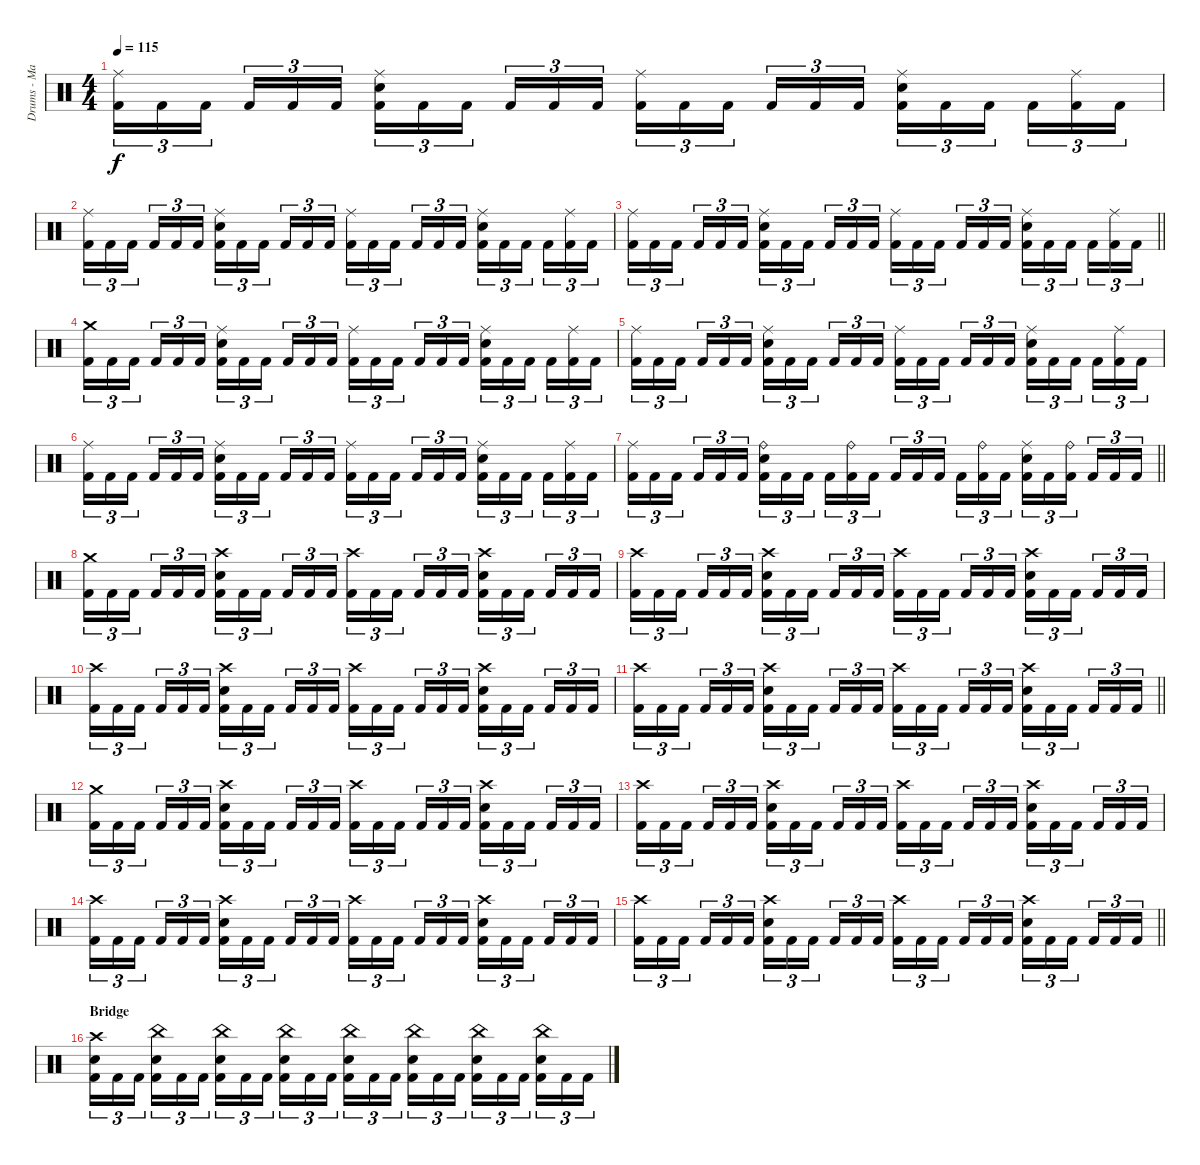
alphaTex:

\track ("Drums - Mario Duplantier" "Drums - Ma") {instrument percussion}
\staff {score}
\articulation defaults
\ts (4 4)
\tempo 115
\clef neutral
\ks c
("Ride (middle)" "Kick (hit) 2").16{tu (3 2) dy f} "Kick (hit) 2".16{tu (3 2)} "Kick (hit) 2".16{tu (3 2) beam splitsecondary} "Kick (hit) 2".16{tu (3 2)} "Kick (hit) 2".16{tu (3 2)} "Kick (hit) 2".16{tu (3 2)} ("Ride (middle)" "Electric Snare (hit)" "Kick (hit) 2").16{tu (3 2)} "Kick (hit) 2".16{tu (3 2)} "Kick (hit) 2".16{tu (3 2) beam splitsecondary} "Kick (hit) 2".16{tu (3 2)} "Kick (hit) 2".16{tu (3 2)} "Kick (hit) 2".16{tu (3 2)} ("Ride (middle)" "Kick (hit) 2").16{tu (3 2)} "Kick (hit) 2".16{tu (3 2)} "Kick (hit) 2".16{tu (3 2) beam splitsecondary} "Kick (hit) 2".16{tu (3 2)} "Kick (hit) 2".16{tu (3 2)} "Kick (hit) 2".16{tu (3 2)} ("Ride (middle)" "Electric Snare (hit)" "Kick (hit) 2").16{tu (3 2)} "Kick (hit) 2".16{tu (3 2)} "Kick (hit) 2".16{tu (3 2) beam splitsecondary} "Kick (hit) 2".16{tu (3 2)} ("Ride (middle)" "Kick (hit) 2").16{tu (3 2)} "Kick (hit) 2".16{tu (3 2)} |
("Ride (middle)" "Kick (hit) 2").16{tu (3 2)} "Kick (hit) 2".16{tu (3 2)} "Kick (hit) 2".16{tu (3 2) beam splitsecondary} "Kick (hit) 2".16{tu (3 2)} "Kick (hit) 2".16{tu (3 2)} "Kick (hit) 2".16{tu (3 2)} ("Ride (middle)" "Electric Snare (hit)" "Kick (hit) 2").16{tu (3 2)} "Kick (hit) 2".16{tu (3 2)} "Kick (hit) 2".16{tu (3 2) beam splitsecondary} "Kick (hit) 2".16{tu (3 2)} "Kick (hit) 2".16{tu (3 2)} "Kick (hit) 2".16{tu (3 2)} ("Ride (middle)" "Kick (hit) 2").16{tu (3 2)} "Kick (hit) 2".16{tu (3 2)} "Kick (hit) 2".16{tu (3 2) beam splitsecondary} "Kick (hit) 2".16{tu (3 2)} "Kick (hit) 2".16{tu (3 2)} "Kick (hit) 2".16{tu (3 2)} ("Ride (middle)" "Electric Snare (hit)" "Kick (hit) 2").16{tu (3 2)} "Kick (hit) 2".16{tu (3 2)} "Kick (hit) 2".16{tu (3 2) beam splitsecondary} "Kick (hit) 2".16{tu (3 2)} ("Ride (middle)" "Kick (hit) 2").16{tu (3 2)} "Kick (hit) 2".16{tu (3 2)} |
\barLineRight lightlight
("Ride (middle)" "Kick (hit) 2").16{tu (3 2)} "Kick (hit) 2".16{tu (3 2)} "Kick (hit) 2".16{tu (3 2) beam splitsecondary} "Kick (hit) 2".16{tu (3 2)} "Kick (hit) 2".16{tu (3 2)} "Kick (hit) 2".16{tu (3 2)} ("Ride (middle)" "Electric Snare (hit)" "Kick (hit) 2").16{tu (3 2)} "Kick (hit) 2".16{tu (3 2)} "Kick (hit) 2".16{tu (3 2) beam splitsecondary} "Kick (hit) 2".16{tu (3 2)} "Kick (hit) 2".16{tu (3 2)} "Kick (hit) 2".16{tu (3 2)} ("Ride (middle)" "Kick (hit) 2").16{tu (3 2)} "Kick (hit) 2".16{tu (3 2)} "Kick (hit) 2".16{tu (3 2) beam splitsecondary} "Kick (hit) 2".16{tu (3 2)} "Kick (hit) 2".16{tu (3 2)} "Kick (hit) 2".16{tu (3 2)} ("Ride (middle)" "Electric Snare (hit)" "Kick (hit) 2").16{tu (3 2)} "Kick (hit) 2".16{tu (3 2)} "Kick (hit) 2".16{tu (3 2) beam splitsecondary} "Kick (hit) 2".16{tu (3 2)} ("Ride (middle)" "Kick (hit) 2").16{tu (3 2)} "Kick (hit) 2".16{tu (3 2)} |
\section ("" "")
("Crash medium (hit)" "Kick (hit) 2").16{tu (3 2)} "Kick (hit) 2".16{tu (3 2)} "Kick (hit) 2".16{tu (3 2) beam splitsecondary} "Kick (hit) 2".16{tu (3 2)} "Kick (hit) 2".16{tu (3 2)} "Kick (hit) 2".16{tu (3 2)} ("Ride (middle)" "Electric Snare (hit)" "Kick (hit) 2").16{tu (3 2)} "Kick (hit) 2".16{tu (3 2)} "Kick (hit) 2".16{tu (3 2) beam splitsecondary} "Kick (hit) 2".16{tu (3 2)} "Kick (hit) 2".16{tu (3 2)} "Kick (hit) 2".16{tu (3 2)} ("Ride (middle)" "Kick (hit) 2").16{tu (3 2)} "Kick (hit) 2".16{tu (3 2)} "Kick (hit) 2".16{tu (3 2) beam splitsecondary} "Kick (hit) 2".16{tu (3 2)} "Kick (hit) 2".16{tu (3 2)} "Kick (hit) 2".16{tu (3 2)} ("Ride (middle)" "Electric Snare (hit)" "Kick (hit) 2").16{tu (3 2)} "Kick (hit) 2".16{tu (3 2)} "Kick (hit) 2".16{tu (3 2) beam splitsecondary} "Kick (hit) 2".16{tu (3 2)} ("Ride (middle)" "Kick (hit) 2").16{tu (3 2)} "Kick (hit) 2".16{tu (3 2)} |
("Ride (middle)" "Kick (hit) 2").16{tu (3 2)} "Kick (hit) 2".16{tu (3 2)} "Kick (hit) 2".16{tu (3 2) beam splitsecondary} "Kick (hit) 2".16{tu (3 2)} "Kick (hit) 2".16{tu (3 2)} "Kick (hit) 2".16{tu (3 2)} ("Ride (middle)" "Electric Snare (hit)" "Kick (hit) 2").16{tu (3 2)} "Kick (hit) 2".16{tu (3 2)} "Kick (hit) 2".16{tu (3 2) beam splitsecondary} "Kick (hit) 2".16{tu (3 2)} "Kick (hit) 2".16{tu (3 2)} "Kick (hit) 2".16{tu (3 2)} ("Ride (middle)" "Kick (hit) 2").16{tu (3 2)} "Kick (hit) 2".16{tu (3 2)} "Kick (hit) 2".16{tu (3 2) beam splitsecondary} "Kick (hit) 2".16{tu (3 2)} "Kick (hit) 2".16{tu (3 2)} "Kick (hit) 2".16{tu (3 2)} ("Ride (middle)" "Electric Snare (hit)" "Kick (hit) 2").16{tu (3 2)} "Kick (hit) 2".16{tu (3 2)} "Kick (hit) 2".16{tu (3 2) beam splitsecondary} "Kick (hit) 2".16{tu (3 2)} ("Ride (middle)" "Kick (hit) 2").16{tu (3 2)} "Kick (hit) 2".16{tu (3 2)} |
("Ride (middle)" "Kick (hit) 2").16{tu (3 2)} "Kick (hit) 2".16{tu (3 2)} "Kick (hit) 2".16{tu (3 2) beam splitsecondary} "Kick (hit) 2".16{tu (3 2)} "Kick (hit) 2".16{tu (3 2)} "Kick (hit) 2".16{tu (3 2)} ("Ride (middle)" "Electric Snare (hit)" "Kick (hit) 2").16{tu (3 2)} "Kick (hit) 2".16{tu (3 2)} "Kick (hit) 2".16{tu (3 2) beam splitsecondary} "Kick (hit) 2".16{tu (3 2)} "Kick (hit) 2".16{tu (3 2)} "Kick (hit) 2".16{tu (3 2)} ("Ride (middle)" "Kick (hit) 2").16{tu (3 2)} "Kick (hit) 2".16{tu (3 2)} "Kick (hit) 2".16{tu (3 2) beam splitsecondary} "Kick (hit) 2".16{tu (3 2)} "Kick (hit) 2".16{tu (3 2)} "Kick (hit) 2".16{tu (3 2)} ("Ride (middle)" "Electric Snare (hit)" "Kick (hit) 2").16{tu (3 2)} "Kick (hit) 2".16{tu (3 2)} "Kick (hit) 2".16{tu (3 2) beam splitsecondary} "Kick (hit) 2".16{tu (3 2)} ("Ride (middle)" "Kick (hit) 2").16{tu (3 2)} "Kick (hit) 2".16{tu (3 2)} |
\barLineRight lightlight
("Ride (middle)" "Kick (hit) 2").16{tu (3 2)} "Kick (hit) 2".16{tu (3 2)} "Kick (hit) 2".16{tu (3 2) beam splitsecondary} "Kick (hit) 2".16{tu (3 2)} "Kick (hit) 2".16{tu (3 2)} "Kick (hit) 2".16{tu (3 2)} ("Ride (bell)" "Electric Snare (hit)" "Kick (hit) 2").16{tu (3 2)} "Kick (hit) 2".16{tu (3 2)} "Kick (hit) 2".16{tu (3 2) beam splitsecondary} "Kick (hit) 2".16{tu (3 2)} ("Ride (bell)" "Kick (hit) 2").16{tu (3 2)} "Kick (hit) 2".16{tu (3 2)} "Kick (hit) 2".16{tu (3 2)} "Kick (hit) 2".16{tu (3 2)} "Kick (hit) 2".16{tu (3 2) beam splitsecondary} "Kick (hit) 2".16{tu (3 2)} ("Ride (bell)" "Kick (hit) 2").16{tu (3 2)} "Kick (hit) 2".16{tu (3 2)} ("Ride (middle)" "Electric Snare (hit)" "Kick (hit) 2").16{tu (3 2)} "Kick (hit) 2".16{tu (3 2)} ("Ride (bell)" "Kick (hit) 2").16{tu (3 2) beam splitsecondary} "Kick (hit) 2".16{tu (3 2)} "Kick (hit) 2".16{tu (3 2)} "Kick (hit) 2".16{tu (3 2)} |
\section ("" "")
("Crash medium (hit)" "Kick (hit) 2").16{tu (3 2)} "Kick (hit) 2".16{tu (3 2)} "Kick (hit) 2".16{tu (3 2) beam splitsecondary} "Kick (hit) 2".16{tu (3 2)} "Kick (hit) 2".16{tu (3 2)} "Kick (hit) 2".16{tu (3 2)} ("Crash high (hit)" "Electric Snare (hit)" "Kick (hit) 2").16{tu (3 2)} "Kick (hit) 2".16{tu (3 2)} "Kick (hit) 2".16{tu (3 2) beam splitsecondary} "Kick (hit) 2".16{tu (3 2)} "Kick (hit) 2".16{tu (3 2)} "Kick (hit) 2".16{tu (3 2)} ("Crash high (hit)" "Kick (hit) 2").16{tu (3 2)} "Kick (hit) 2".16{tu (3 2)} "Kick (hit) 2".16{tu (3 2) beam splitsecondary} "Kick (hit) 2".16{tu (3 2)} "Kick (hit) 2".16{tu (3 2)} "Kick (hit) 2".16{tu (3 2)} ("Crash high (hit)" "Electric Snare (hit)" "Kick (hit) 2").16{tu (3 2)} "Kick (hit) 2".16{tu (3 2)} "Kick (hit) 2".16{tu (3 2) beam splitsecondary} "Kick (hit) 2".16{tu (3 2)} "Kick (hit) 2".16{tu (3 2)} "Kick (hit) 2".16{tu (3 2)} |
("Crash high (hit)" "Kick (hit) 2").16{tu (3 2)} "Kick (hit) 2".16{tu (3 2)} "Kick (hit) 2".16{tu (3 2) beam splitsecondary} "Kick (hit) 2".16{tu (3 2)} "Kick (hit) 2".16{tu (3 2)} "Kick (hit) 2".16{tu (3 2)} ("Crash high (hit)" "Electric Snare (hit)" "Kick (hit) 2").16{tu (3 2)} "Kick (hit) 2".16{tu (3 2)} "Kick (hit) 2".16{tu (3 2) beam splitsecondary} "Kick (hit) 2".16{tu (3 2)} "Kick (hit) 2".16{tu (3 2)} "Kick (hit) 2".16{tu (3 2)} ("Crash high (hit)" "Kick (hit) 2").16{tu (3 2)} "Kick (hit) 2".16{tu (3 2)} "Kick (hit) 2".16{tu (3 2) beam splitsecondary} "Kick (hit) 2".16{tu (3 2)} "Kick (hit) 2".16{tu (3 2)} "Kick (hit) 2".16{tu (3 2)} ("Crash high (hit)" "Electric Snare (hit)" "Kick (hit) 2").16{tu (3 2)} "Kick (hit) 2".16{tu (3 2)} "Kick (hit) 2".16{tu (3 2) beam splitsecondary} "Kick (hit) 2".16{tu (3 2)} "Kick (hit) 2".16{tu (3 2)} "Kick (hit) 2".16{tu (3 2)} |
("Crash high (hit)" "Kick (hit) 2").16{tu (3 2)} "Kick (hit) 2".16{tu (3 2)} "Kick (hit) 2".16{tu (3 2) beam splitsecondary} "Kick (hit) 2".16{tu (3 2)} "Kick (hit) 2".16{tu (3 2)} "Kick (hit) 2".16{tu (3 2)} ("Crash high (hit)" "Electric Snare (hit)" "Kick (hit) 2").16{tu (3 2)} "Kick (hit) 2".16{tu (3 2)} "Kick (hit) 2".16{tu (3 2) beam splitsecondary} "Kick (hit) 2".16{tu (3 2)} "Kick (hit) 2".16{tu (3 2)} "Kick (hit) 2".16{tu (3 2)} ("Crash high (hit)" "Kick (hit) 2").16{tu (3 2)} "Kick (hit) 2".16{tu (3 2)} "Kick (hit) 2".16{tu (3 2) beam splitsecondary} "Kick (hit) 2".16{tu (3 2)} "Kick (hit) 2".16{tu (3 2)} "Kick (hit) 2".16{tu (3 2)} ("Crash high (hit)" "Electric Snare (hit)" "Kick (hit) 2").16{tu (3 2)} "Kick (hit) 2".16{tu (3 2)} "Kick (hit) 2".16{tu (3 2) beam splitsecondary} "Kick (hit) 2".16{tu (3 2)} "Kick (hit) 2".16{tu (3 2)} "Kick (hit) 2".16{tu (3 2)} |
\barLineRight lightlight
("Crash high (hit)" "Kick (hit) 2").16{tu (3 2)} "Kick (hit) 2".16{tu (3 2)} "Kick (hit) 2".16{tu (3 2) beam splitsecondary} "Kick (hit) 2".16{tu (3 2)} "Kick (hit) 2".16{tu (3 2)} "Kick (hit) 2".16{tu (3 2)} ("Crash high (hit)" "Electric Snare (hit)" "Kick (hit) 2").16{tu (3 2)} "Kick (hit) 2".16{tu (3 2)} "Kick (hit) 2".16{tu (3 2) beam splitsecondary} "Kick (hit) 2".16{tu (3 2)} "Kick (hit) 2".16{tu (3 2)} "Kick (hit) 2".16{tu (3 2)} ("Crash high (hit)" "Kick (hit) 2").16{tu (3 2)} "Kick (hit) 2".16{tu (3 2)} "Kick (hit) 2".16{tu (3 2) beam splitsecondary} "Kick (hit) 2".16{tu (3 2)} "Kick (hit) 2".16{tu (3 2)} "Kick (hit) 2".16{tu (3 2)} ("Crash high (hit)" "Electric Snare (hit)" "Kick (hit) 2").16{tu (3 2)} "Kick (hit) 2".16{tu (3 2)} "Kick (hit) 2".16{tu (3 2) beam splitsecondary} "Kick (hit) 2".16{tu (3 2)} "Kick (hit) 2".16{tu (3 2)} "Kick (hit) 2".16{tu (3 2)} |
\section ("" "")
("Crash medium (hit)" "Kick (hit) 2").16{tu (3 2)} "Kick (hit) 2".16{tu (3 2)} "Kick (hit) 2".16{tu (3 2) beam splitsecondary} "Kick (hit) 2".16{tu (3 2)} "Kick (hit) 2".16{tu (3 2)} "Kick (hit) 2".16{tu (3 2)} ("Crash high (hit)" "Electric Snare (hit)" "Kick (hit) 2").16{tu (3 2)} "Kick (hit) 2".16{tu (3 2)} "Kick (hit) 2".16{tu (3 2) beam splitsecondary} "Kick (hit) 2".16{tu (3 2)} "Kick (hit) 2".16{tu (3 2)} "Kick (hit) 2".16{tu (3 2)} ("Crash high (hit)" "Kick (hit) 2").16{tu (3 2)} "Kick (hit) 2".16{tu (3 2)} "Kick (hit) 2".16{tu (3 2) beam splitsecondary} "Kick (hit) 2".16{tu (3 2)} "Kick (hit) 2".16{tu (3 2)} "Kick (hit) 2".16{tu (3 2)} ("Crash high (hit)" "Electric Snare (hit)" "Kick (hit) 2").16{tu (3 2)} "Kick (hit) 2".16{tu (3 2)} "Kick (hit) 2".16{tu (3 2) beam splitsecondary} "Kick (hit) 2".16{tu (3 2)} "Kick (hit) 2".16{tu (3 2)} "Kick (hit) 2".16{tu (3 2)} |
("Crash high (hit)" "Kick (hit) 2").16{tu (3 2)} "Kick (hit) 2".16{tu (3 2)} "Kick (hit) 2".16{tu (3 2) beam splitsecondary} "Kick (hit) 2".16{tu (3 2)} "Kick (hit) 2".16{tu (3 2)} "Kick (hit) 2".16{tu (3 2)} ("Crash high (hit)" "Electric Snare (hit)" "Kick (hit) 2").16{tu (3 2)} "Kick (hit) 2".16{tu (3 2)} "Kick (hit) 2".16{tu (3 2) beam splitsecondary} "Kick (hit) 2".16{tu (3 2)} "Kick (hit) 2".16{tu (3 2)} "Kick (hit) 2".16{tu (3 2)} ("Crash high (hit)" "Kick (hit) 2").16{tu (3 2)} "Kick (hit) 2".16{tu (3 2)} "Kick (hit) 2".16{tu (3 2) beam splitsecondary} "Kick (hit) 2".16{tu (3 2)} "Kick (hit) 2".16{tu (3 2)} "Kick (hit) 2".16{tu (3 2)} ("Crash high (hit)" "Electric Snare (hit)" "Kick (hit) 2").16{tu (3 2)} "Kick (hit) 2".16{tu (3 2)} "Kick (hit) 2".16{tu (3 2) beam splitsecondary} "Kick (hit) 2".16{tu (3 2)} "Kick (hit) 2".16{tu (3 2)} "Kick (hit) 2".16{tu (3 2)} |
("Crash high (hit)" "Kick (hit) 2").16{tu (3 2)} "Kick (hit) 2".16{tu (3 2)} "Kick (hit) 2".16{tu (3 2) beam splitsecondary} "Kick (hit) 2".16{tu (3 2)} "Kick (hit) 2".16{tu (3 2)} "Kick (hit) 2".16{tu (3 2)} ("Crash high (hit)" "Electric Snare (hit)" "Kick (hit) 2").16{tu (3 2)} "Kick (hit) 2".16{tu (3 2)} "Kick (hit) 2".16{tu (3 2) beam splitsecondary} "Kick (hit) 2".16{tu (3 2)} "Kick (hit) 2".16{tu (3 2)} "Kick (hit) 2".16{tu (3 2)} ("Crash high (hit)" "Kick (hit) 2").16{tu (3 2)} "Kick (hit) 2".16{tu (3 2)} "Kick (hit) 2".16{tu (3 2) beam splitsecondary} "Kick (hit) 2".16{tu (3 2)} "Kick (hit) 2".16{tu (3 2)} "Kick (hit) 2".16{tu (3 2)} ("Crash high (hit)" "Electric Snare (hit)" "Kick (hit) 2").16{tu (3 2)} "Kick (hit) 2".16{tu (3 2)} "Kick (hit) 2".16{tu (3 2) beam splitsecondary} "Kick (hit) 2".16{tu (3 2)} "Kick (hit) 2".16{tu (3 2)} "Kick (hit) 2".16{tu (3 2)} |
\barLineRight lightlight
("Crash high (hit)" "Kick (hit) 2").16{tu (3 2)} "Kick (hit) 2".16{tu (3 2)} "Kick (hit) 2".16{tu (3 2) beam splitsecondary} "Kick (hit) 2".16{tu (3 2)} "Kick (hit) 2".16{tu (3 2)} "Kick (hit) 2".16{tu (3 2)} ("Crash high (hit)" "Electric Snare (hit)" "Kick (hit) 2").16{tu (3 2)} "Kick (hit) 2".16{tu (3 2)} "Kick (hit) 2".16{tu (3 2) beam splitsecondary} "Kick (hit) 2".16{tu (3 2)} "Kick (hit) 2".16{tu (3 2)} "Kick (hit) 2".16{tu (3 2)} ("Crash high (hit)" "Kick (hit) 2").16{tu (3 2)} "Kick (hit) 2".16{tu (3 2)} "Kick (hit) 2".16{tu (3 2) beam splitsecondary} "Kick (hit) 2".16{tu (3 2)} "Kick (hit) 2".16{tu (3 2)} "Kick (hit) 2".16{tu (3 2)} ("Crash high (hit)" "Electric Snare (hit)" "Kick (hit) 2").16{tu (3 2)} "Kick (hit) 2".16{tu (3 2)} "Kick (hit) 2".16{tu (3 2) beam splitsecondary} "Kick (hit) 2".16{tu (3 2)} "Kick (hit) 2".16{tu (3 2)} "Kick (hit) 2".16{tu (3 2)} |
\section ("" "Bridge")
("Crash high (hit)" "Electric Snare (hit)" "Kick (hit) 2").16{tu (3 2)} "Kick (hit) 2".16{tu (3 2)} "Kick (hit) 2".16{tu (3 2) beam splitsecondary} ("China (hit)" "Electric Snare (hit)" "Kick (hit) 2").16{tu (3 2)} "Kick (hit) 2".16{tu (3 2)} "Kick (hit) 2".16{tu (3 2)} ("China (hit)" "Electric Snare (hit)" "Kick (hit) 2").16{tu (3 2)} "Kick (hit) 2".16{tu (3 2)} "Kick (hit) 2".16{tu (3 2) beam splitsecondary} ("China (hit)" "Electric Snare (hit)" "Kick (hit) 2").16{tu (3 2)} "Kick (hit) 2".16{tu (3 2)} "Kick (hit) 2".16{tu (3 2)} ("China (hit)" "Electric Snare (hit)" "Kick (hit) 2").16{tu (3 2)} "Kick (hit) 2".16{tu (3 2)} "Kick (hit) 2".16{tu (3 2) beam splitsecondary} ("China (hit)" "Electric Snare (hit)" "Kick (hit) 2").16{tu (3 2)} "Kick (hit) 2".16{tu (3 2)} "Kick (hit) 2".16{tu (3 2)} ("China (hit)" "Electric Snare (hit)" "Kick (hit) 2").16{tu (3 2)} "Kick (hit) 2".16{tu (3 2)} "Kick (hit) 2".16{tu (3 2) beam splitsecondary} ("China (hit)" "Electric Snare (hit)" "Kick (hit) 2").16{tu (3 2)} "Kick (hit) 2".16{tu (3 2)} "Kick (hit) 2".16{tu (3 2)}
